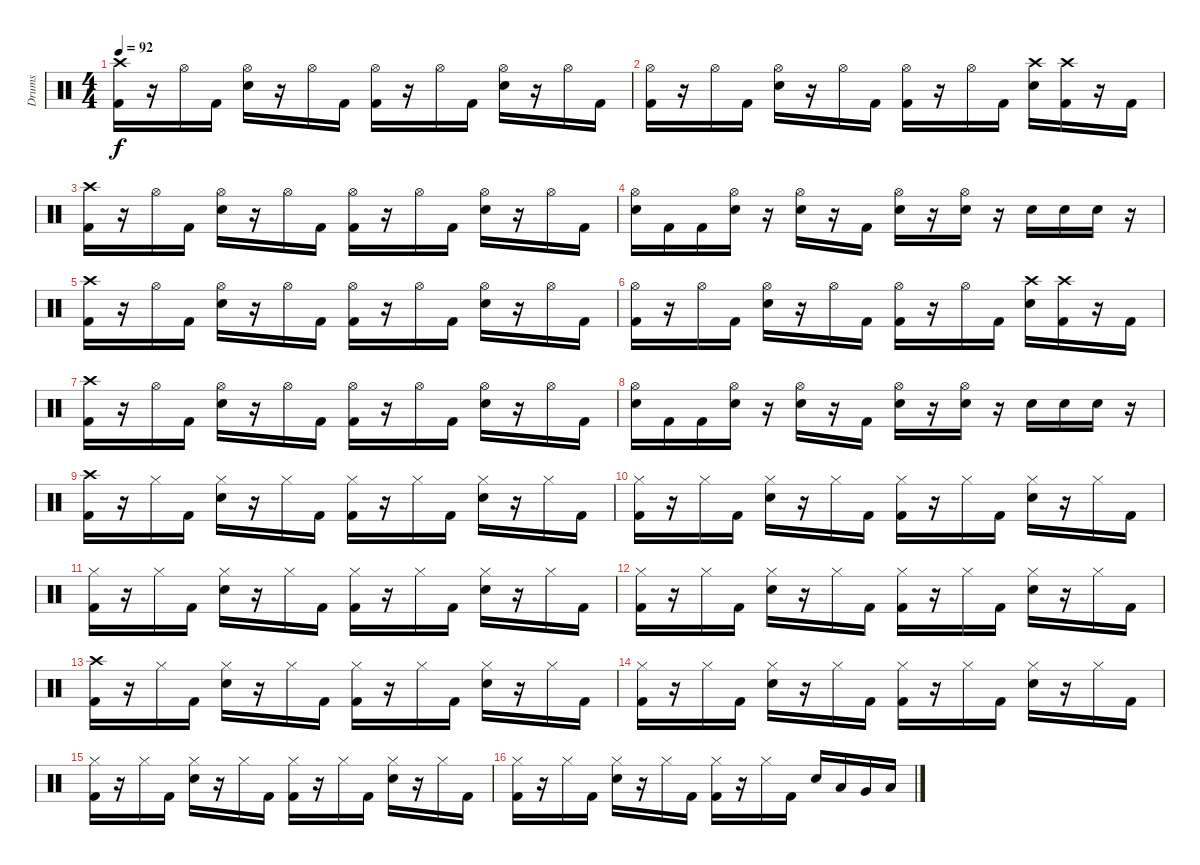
\track ("Drums" "Drums") {instrument percussion}
\staff {score}
\articulation defaults
\ts (4 4)
\tempo 92
\clef neutral
\ks c
("Crash high (hit)" "Kick (hit) 2").16{dy f} r.16 "Hi-Hat (open)".16 "Kick (hit) 2".16 ("Hi-Hat (open)" "Electric Snare (hit)").16 r.16 "Hi-Hat (open)".16 "Kick (hit) 2".16 ("Hi-Hat (open)" "Kick (hit) 2").16 r.16 "Hi-Hat (open)".16 "Kick (hit) 2".16 ("Hi-Hat (open)" "Electric Snare (hit)").16 r.16 "Hi-Hat (open)".16 "Kick (hit) 2".16 |
("Hi-Hat (open)" "Kick (hit) 2").16 r.16 "Hi-Hat (open)".16 "Kick (hit) 2".16 ("Hi-Hat (open)" "Electric Snare (hit)").16 r.16 "Hi-Hat (open)".16 "Kick (hit) 2".16 ("Hi-Hat (open)" "Kick (hit) 2").16 r.16 "Hi-Hat (open)".16 "Kick (hit) 2".16 ("Crash high (hit)" "Electric Snare (hit)").16 ("Crash high (hit)" "Kick (hit) 2").16 r.16 "Kick (hit) 2".16 |
("Crash high (hit)" "Kick (hit) 2").16 r.16 "Hi-Hat (open)".16 "Kick (hit) 2".16 ("Hi-Hat (open)" "Electric Snare (hit)").16 r.16 "Hi-Hat (open)".16 "Kick (hit) 2".16 ("Hi-Hat (open)" "Kick (hit) 2").16 r.16 "Hi-Hat (open)".16 "Kick (hit) 2".16 ("Hi-Hat (open)" "Electric Snare (hit)").16 r.16 "Hi-Hat (open)".16 "Kick (hit) 2".16 |
("Hi-Hat (open)" "Electric Snare (hit)").16 "Kick (hit) 2".16 "Kick (hit) 2".16 ("Hi-Hat (open)" "Electric Snare (hit)").16 r.16 ("Hi-Hat (open)" "Electric Snare (hit)").16 r.16 "Kick (hit) 2".16 ("Hi-Hat (open)" "Electric Snare (hit)").16 r.16 ("Hi-Hat (open)" "Electric Snare (hit)").16 r.16 "Electric Snare (hit)".16 "Electric Snare (hit)".16 "Electric Snare (hit)".16 r.16 |
("Crash high (hit)" "Kick (hit) 2").16 r.16 "Hi-Hat (open)".16 "Kick (hit) 2".16 ("Hi-Hat (open)" "Electric Snare (hit)").16 r.16 "Hi-Hat (open)".16 "Kick (hit) 2".16 ("Hi-Hat (open)" "Kick (hit) 2").16 r.16 "Hi-Hat (open)".16 "Kick (hit) 2".16 ("Hi-Hat (open)" "Electric Snare (hit)").16 r.16 "Hi-Hat (open)".16 "Kick (hit) 2".16 |
("Hi-Hat (open)" "Kick (hit) 2").16 r.16 "Hi-Hat (open)".16 "Kick (hit) 2".16 ("Hi-Hat (open)" "Electric Snare (hit)").16 r.16 "Hi-Hat (open)".16 "Kick (hit) 2".16 ("Hi-Hat (open)" "Kick (hit) 2").16 r.16 "Hi-Hat (open)".16 "Kick (hit) 2".16 ("Crash high (hit)" "Electric Snare (hit)").16 ("Crash high (hit)" "Kick (hit) 2").16 r.16 "Kick (hit) 2".16 |
("Crash high (hit)" "Kick (hit) 2").16 r.16 "Hi-Hat (open)".16 "Kick (hit) 2".16 ("Hi-Hat (open)" "Electric Snare (hit)").16 r.16 "Hi-Hat (open)".16 "Kick (hit) 2".16 ("Hi-Hat (open)" "Kick (hit) 2").16 r.16 "Hi-Hat (open)".16 "Kick (hit) 2".16 ("Hi-Hat (open)" "Electric Snare (hit)").16 r.16 "Hi-Hat (open)".16 "Kick (hit) 2".16 |
("Hi-Hat (open)" "Electric Snare (hit)").16 "Kick (hit) 2".16 "Kick (hit) 2".16 ("Hi-Hat (open)" "Electric Snare (hit)").16 r.16 ("Hi-Hat (open)" "Electric Snare (hit)").16 r.16 "Kick (hit) 2".16 ("Hi-Hat (open)" "Electric Snare (hit)").16 r.16 ("Hi-Hat (open)" "Electric Snare (hit)").16 r.16 "Electric Snare (hit)".16 "Electric Snare (hit)".16 "Electric Snare (hit)".16 r.16 |
("Crash high (hit)" "Kick (hit) 2").16 r.16 "Hi-Hat (closed)".16 "Kick (hit) 2".16 ("Hi-Hat (closed)" "Electric Snare (hit)").16 r.16 "Hi-Hat (closed)".16 "Kick (hit) 2".16 ("Hi-Hat (closed)" "Kick (hit) 2").16 r.16 "Hi-Hat (closed)".16 "Kick (hit) 2".16 ("Hi-Hat (closed)" "Electric Snare (hit)").16 r.16 "Hi-Hat (closed)".16 "Kick (hit) 2".16 |
("Hi-Hat (closed)" "Kick (hit) 2").16 r.16 "Hi-Hat (closed)".16 "Kick (hit) 2".16 ("Hi-Hat (closed)" "Electric Snare (hit)").16 r.16 "Hi-Hat (closed)".16 "Kick (hit) 2".16 ("Hi-Hat (closed)" "Kick (hit) 2").16 r.16 "Hi-Hat (closed)".16 "Kick (hit) 2".16 ("Hi-Hat (closed)" "Electric Snare (hit)").16 r.16 "Hi-Hat (closed)".16 "Kick (hit) 2".16 |
("Hi-Hat (closed)" "Kick (hit) 2").16 r.16 "Hi-Hat (closed)".16 "Kick (hit) 2".16 ("Hi-Hat (closed)" "Electric Snare (hit)").16 r.16 "Hi-Hat (closed)".16 "Kick (hit) 2".16 ("Hi-Hat (closed)" "Kick (hit) 2").16 r.16 "Hi-Hat (closed)".16 "Kick (hit) 2".16 ("Hi-Hat (closed)" "Electric Snare (hit)").16 r.16 "Hi-Hat (closed)".16 "Kick (hit) 2".16 |
("Hi-Hat (closed)" "Kick (hit) 2").16 r.16 "Hi-Hat (closed)".16 "Kick (hit) 2".16 ("Hi-Hat (closed)" "Electric Snare (hit)").16 r.16 "Hi-Hat (closed)".16 "Kick (hit) 2".16 ("Hi-Hat (closed)" "Kick (hit) 2").16 r.16 "Hi-Hat (closed)".16 "Kick (hit) 2".16 ("Hi-Hat (closed)" "Electric Snare (hit)").16 r.16 "Hi-Hat (closed)".16 "Kick (hit) 2".16 |
("Crash high (hit)" "Kick (hit) 2").16 r.16 "Hi-Hat (closed)".16 "Kick (hit) 2".16 ("Hi-Hat (closed)" "Electric Snare (hit)").16 r.16 "Hi-Hat (closed)".16 "Kick (hit) 2".16 ("Hi-Hat (closed)" "Kick (hit) 2").16 r.16 "Hi-Hat (closed)".16 "Kick (hit) 2".16 ("Hi-Hat (closed)" "Electric Snare (hit)").16 r.16 "Hi-Hat (closed)".16 "Kick (hit) 2".16 |
("Hi-Hat (closed)" "Kick (hit) 2").16 r.16 "Hi-Hat (closed)".16 "Kick (hit) 2".16 ("Hi-Hat (closed)" "Electric Snare (hit)").16 r.16 "Hi-Hat (closed)".16 "Kick (hit) 2".16 ("Hi-Hat (closed)" "Kick (hit) 2").16 r.16 "Hi-Hat (closed)".16 "Kick (hit) 2".16 ("Hi-Hat (closed)" "Electric Snare (hit)").16 r.16 "Hi-Hat (closed)".16 "Kick (hit) 2".16 |
("Hi-Hat (closed)" "Kick (hit) 2").16 r.16 "Hi-Hat (closed)".16 "Kick (hit) 2".16 ("Hi-Hat (closed)" "Electric Snare (hit)").16 r.16 "Hi-Hat (closed)".16 "Kick (hit) 2".16 ("Hi-Hat (closed)" "Kick (hit) 2").16 r.16 "Hi-Hat (closed)".16 "Kick (hit) 2".16 ("Hi-Hat (closed)" "Electric Snare (hit)").16 r.16 "Hi-Hat (closed)".16 "Kick (hit) 2".16 |
("Hi-Hat (closed)" "Kick (hit) 2").16 r.16 "Hi-Hat (closed)".16 "Kick (hit) 2".16 ("Hi-Hat (closed)" "Electric Snare (hit)").16 r.16 "Hi-Hat (closed)".16 "Kick (hit) 2".16 ("Hi-Hat (closed)" "Kick (hit) 2").16 r.16 "Hi-Hat (closed)".16 "Kick (hit) 2".16 "Electric Snare (hit)".16 "Low Tom (hit)".16 "Very Low Tom (hit)".16 "Low Floor Tom (hit)".16
